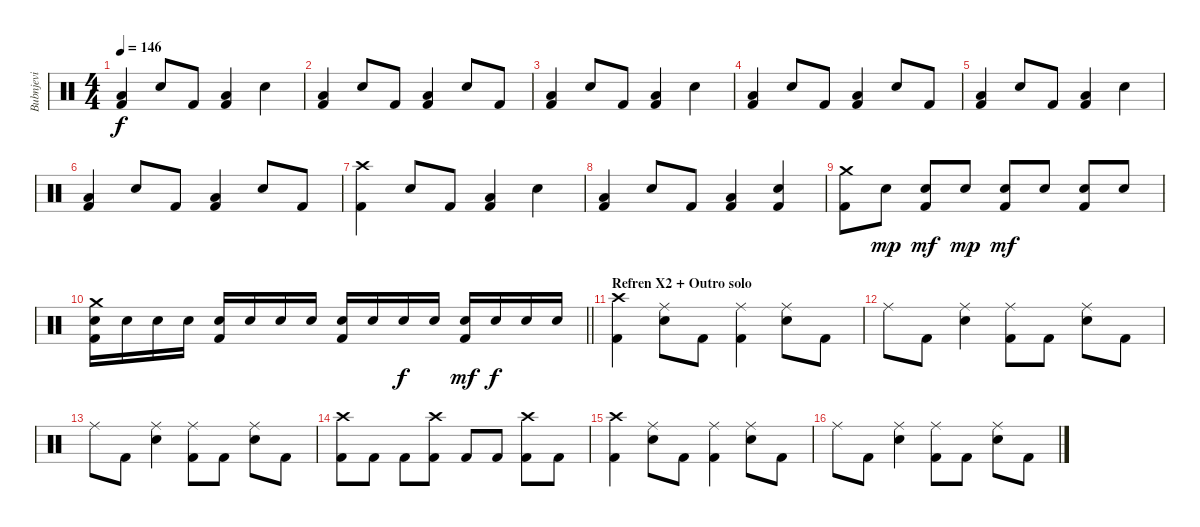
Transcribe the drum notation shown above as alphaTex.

\track ("Bubnjevi" "Bubnjevi") {instrument percussion}
\staff {score}
\articulation defaults
\ts (4 4)
\tempo 146
\clef neutral
\ks c
("Low Tom (hit)" "Kick (hit) 2").4{dy f} "Electric Snare (hit)".8 "Kick (hit) 2".8 ("Low Tom (hit)" "Kick (hit) 2").4 "Electric Snare (hit)".4 |
("Low Tom (hit)" "Kick (hit) 2").4 "Electric Snare (hit)".8 "Kick (hit) 2".8 ("Low Tom (hit)" "Kick (hit) 2").4 "Electric Snare (hit)".8 "Kick (hit) 2".8 |
("Low Tom (hit)" "Kick (hit) 2").4 "Electric Snare (hit)".8 "Kick (hit) 2".8 ("Low Tom (hit)" "Kick (hit) 2").4 "Electric Snare (hit)".4 |
("Low Tom (hit)" "Kick (hit) 2").4 "Electric Snare (hit)".8 "Kick (hit) 2".8 ("Low Tom (hit)" "Kick (hit) 2").4 "Electric Snare (hit)".8 "Kick (hit) 2".8 |
("Low Tom (hit)" "Kick (hit) 2").4 "Electric Snare (hit)".8 "Kick (hit) 2".8 ("Low Tom (hit)" "Kick (hit) 2").4 "Electric Snare (hit)".4 |
("Low Tom (hit)" "Kick (hit) 2").4 "Electric Snare (hit)".8 "Kick (hit) 2".8 ("Low Tom (hit)" "Kick (hit) 2").4 "Electric Snare (hit)".8 "Kick (hit) 2".8 |
("Crash high (hit)" "Kick (hit) 2").4 "Electric Snare (hit)".8 "Kick (hit) 2".8 ("Low Tom (hit)" "Kick (hit) 2").4 "Electric Snare (hit)".4 |
("Low Tom (hit)" "Kick (hit) 2").4 "Electric Snare (hit)".8 "Kick (hit) 2".8 ("Low Tom (hit)" "Kick (hit) 2").4 ("Electric Snare (hit)" "Kick (hit) 2").4 |
("Crash medium (hit)" "Kick (hit) 2").8 "Electric Snare (hit)".8{dy mp} ("Electric Snare (hit)" "Kick (hit) 2").8{dy mf} "Electric Snare (hit)".8{dy mp} ("Electric Snare (hit)" "Kick (hit) 2").8{dy mf} "Electric Snare (hit)".8 ("Electric Snare (hit)" "Kick (hit) 2").8 "Electric Snare (hit)".8 |
\barLineRight lightlight
("Crash medium (hit)" "Electric Snare (hit)" "Kick (hit) 2").16 "Electric Snare (hit)".16 "Electric Snare (hit)".16 "Electric Snare (hit)".16 ("Electric Snare (hit)" "Kick (hit) 2").16 "Electric Snare (hit)".16 "Electric Snare (hit)".16 "Electric Snare (hit)".16 ("Electric Snare (hit)" "Kick (hit) 2").16 "Electric Snare (hit)".16 "Electric Snare (hit)".16{dy f} "Electric Snare (hit)".16 ("Electric Snare (hit)" "Kick (hit) 2").16{dy mf} "Electric Snare (hit)".16{dy f} "Electric Snare (hit)".16 "Electric Snare (hit)".16 |
\section ("" "Refren X2 + Outro solo")
("Crash high (hit)" "Kick (hit) 2").4 ("Ride (middle)" "Electric Snare (hit)").8 "Kick (hit) 2".8 ("Ride (middle)" "Kick (hit) 2").4 ("Ride (middle)" "Electric Snare (hit)").8 "Kick (hit) 2".8 |
"Ride (middle)".8 "Kick (hit) 2".8 ("Ride (middle)" "Electric Snare (hit)").4 ("Ride (middle)" "Kick (hit) 2").8 "Kick (hit) 2".8 ("Ride (middle)" "Electric Snare (hit)").8 "Kick (hit) 2".8 |
"Ride (middle)".8 "Kick (hit) 2".8 ("Ride (middle)" "Electric Snare (hit)").4 ("Ride (middle)" "Kick (hit) 2").8 "Kick (hit) 2".8 ("Ride (middle)" "Electric Snare (hit)").8 "Kick (hit) 2".8 |
("Crash high (hit)" "Kick (hit) 2").8 "Kick (hit) 2".8 "Kick (hit) 2".8 ("Crash high (hit)" "Kick (hit) 2").8 "Kick (hit) 2".8 "Kick (hit) 2".8 ("Crash high (hit)" "Kick (hit) 2").8 "Kick (hit) 2".8 |
("Crash high (hit)" "Kick (hit) 2").4 ("Ride (middle)" "Electric Snare (hit)").8 "Kick (hit) 2".8 ("Ride (middle)" "Kick (hit) 2").4 ("Ride (middle)" "Electric Snare (hit)").8 "Kick (hit) 2".8 |
"Ride (middle)".8 "Kick (hit) 2".8 ("Ride (middle)" "Electric Snare (hit)").4 ("Ride (middle)" "Kick (hit) 2").8 "Kick (hit) 2".8 ("Ride (middle)" "Electric Snare (hit)").8 "Kick (hit) 2".8
